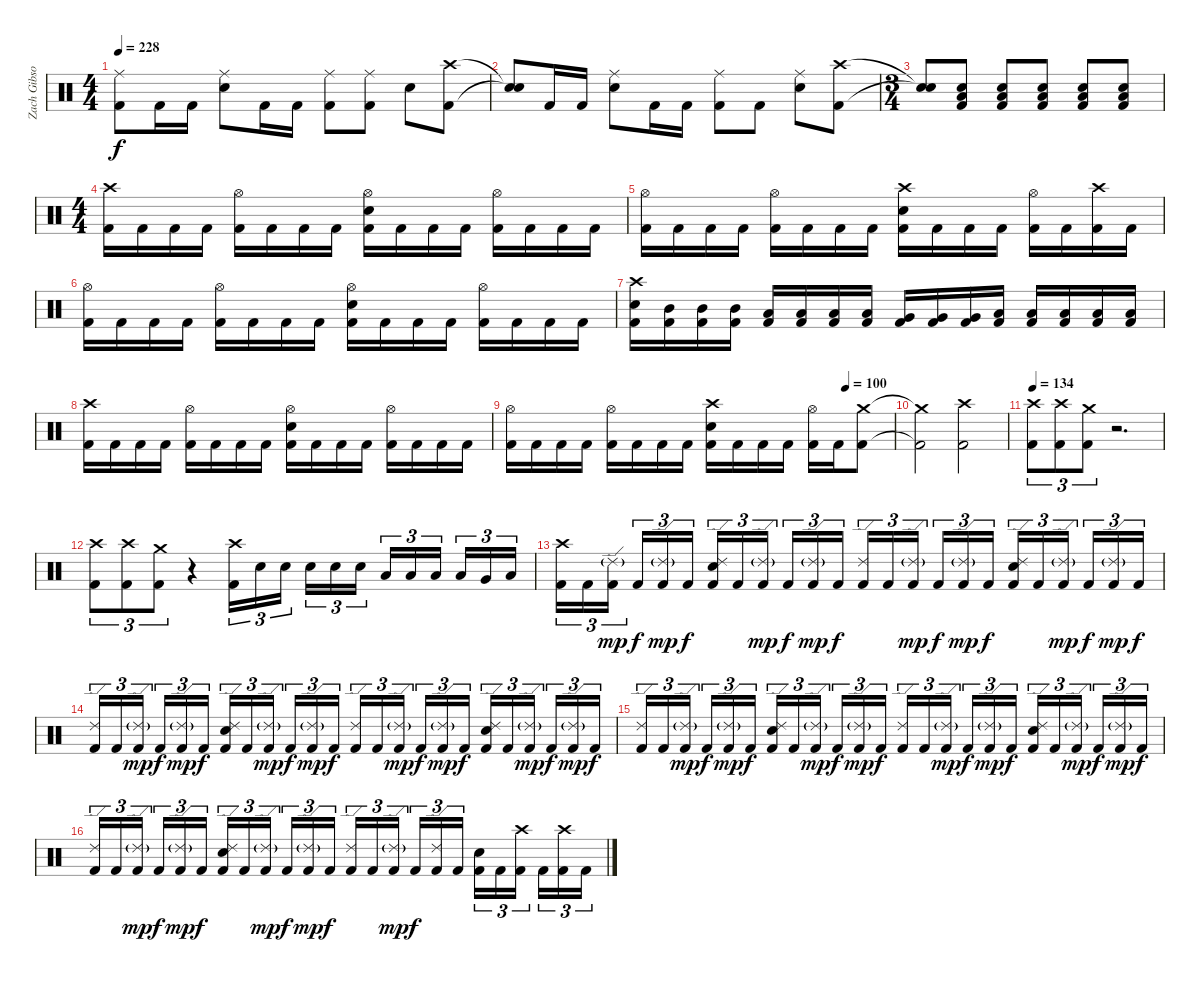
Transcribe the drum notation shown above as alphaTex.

\track ("Zach Gibson (Ex-Drums)" "Zach Gibso") {instrument percussion}
\staff {score}
\articulation defaults
\ts (4 4)
\tempo 228
\clef neutral
\ks c
("Ride (middle)" "Kick (hit) 2").8{dy f} "Kick (hit) 2".16 "Kick (hit) 2".16 ("Ride (middle)" "Snare (hit) 2").8 "Kick (hit) 2".16 "Kick (hit) 2".16 ("Kick (hit) 2" "Ride (middle)").8 ("Ride (middle)" "Kick (hit) 2").8 "Snare (hit) 2".8 ("Crash high (hit)" "Kick (hit) 2").8 |
("Snare (hit)"{t} "Snare (hit)"{t}).8 "Kick (hit) 2".16 "Kick (hit) 2".16 ("Ride (middle)" "Snare (hit) 2").8 "Kick (hit) 2".16 "Kick (hit) 2".16 ("Ride (middle)" "Kick (hit) 2").8 "Kick (hit) 2".8 ("Ride (middle)" "Snare (hit) 2").8 ("Crash high (hit)" "Kick (hit) 2").8 |
\ts (3 4)
("Snare (hit)"{t} "Snare (hit)"{t}).8 ("Low Floor Tom (hit)" "Snare (hit) 2" "Kick (hit) 2").8 ("Low Floor Tom (hit)" "Snare (hit) 2" "Kick (hit) 2").8 ("Low Floor Tom (hit)" "Snare (hit) 2" "Kick (hit) 2").8 ("Low Floor Tom (hit)" "Snare (hit) 2" "Kick (hit) 2").8 ("Low Floor Tom (hit)" "Snare (hit) 2" "Kick (hit) 2").8 |
\ts (4 4)
("Crash high (hit)" "Kick (hit) 2").16 "Kick (hit) 2".16 "Kick (hit) 2".16 "Kick (hit) 2".16 ("Hi-Hat (open)" "Kick (hit) 2").16 "Kick (hit) 2".16 "Kick (hit) 2".16 "Kick (hit) 2".16 ("Hi-Hat (open)" "Snare (hit) 2" "Kick (hit) 2").16 "Kick (hit) 2".16 "Kick (hit) 2".16 "Kick (hit) 2".16 ("Hi-Hat (open)" "Kick (hit) 2").16 "Kick (hit) 2".16 "Kick (hit) 2".16 "Kick (hit) 2".16 |
("Hi-Hat (open)" "Kick (hit) 2").16 "Kick (hit) 2".16 "Kick (hit) 2".16 "Kick (hit) 2".16 ("Hi-Hat (open)" "Kick (hit) 2").16 "Kick (hit) 2".16 "Kick (hit) 2".16 "Kick (hit) 2".16 ("Crash high (hit)" "Snare (hit) 2" "Kick (hit) 2").16 "Kick (hit) 2".16 "Kick (hit) 2".16 "Kick (hit) 2".16 ("Hi-Hat (open)" "Kick (hit) 2").16 "Kick (hit) 2".16 ("Crash high (hit)" "Kick (hit) 2").16 "Kick (hit) 2".16 |
("Hi-Hat (open)" "Kick (hit) 2").16 "Kick (hit) 2".16 "Kick (hit) 2".16 "Kick (hit) 2".16 ("Hi-Hat (open)" "Kick (hit) 2").16 "Kick (hit) 2".16 "Kick (hit) 2".16 "Kick (hit) 2".16 ("Hi-Hat (open)" "Snare (hit) 2" "Kick (hit) 2").16 "Kick (hit) 2".16 "Kick (hit) 2".16 "Kick (hit) 2".16 ("Hi-Hat (open)" "Kick (hit) 2").16 "Kick (hit) 2".16 "Kick (hit) 2".16 "Kick (hit) 2".16 |
("Crash high (hit)" "Snare (hit) 2" "Kick (hit) 2").16 ("Mid Tom (hit)" "Kick (hit) 2").16 ("Mid Tom (hit)" "Kick (hit) 2").16 ("Mid Tom (hit)" "Kick (hit) 2").16 ("Low Tom (hit)" "Kick (hit) 2").16 ("Low Tom (hit)" "Kick (hit) 2").16 ("Low Tom (hit)" "Kick (hit) 2").16 ("Low Tom (hit)" "Kick (hit) 2").16 ("Very Low Tom (hit)" "Kick (hit) 2").16 ("Very Low Tom (hit)" "Kick (hit) 2").16 ("Very Low Tom (hit)" "Kick (hit) 2").16 ("Low Floor Tom (hit)" "Kick (hit) 2").16 ("Low Floor Tom (hit)" "Kick (hit) 2").16 ("Low Floor Tom (hit)" "Kick (hit) 2").16 ("Low Floor Tom (hit)" "Kick (hit) 2").16 ("Low Floor Tom (hit)" "Kick (hit) 2").16 |
("Crash high (hit)" "Kick (hit) 2").16 "Kick (hit) 2".16 "Kick (hit) 2".16 "Kick (hit) 2".16 ("Hi-Hat (open)" "Kick (hit) 2").16 "Kick (hit) 2".16 "Kick (hit) 2".16 "Kick (hit) 2".16 ("Hi-Hat (open)" "Snare (hit) 2" "Kick (hit) 2").16 "Kick (hit) 2".16 "Kick (hit) 2".16 "Kick (hit) 2".16 ("Hi-Hat (open)" "Kick (hit) 2").16 "Kick (hit) 2".16 "Kick (hit) 2".16 "Kick (hit) 2".16 |
\tempo (100 0.875)
("Hi-Hat (open)" "Kick (hit) 2").16 "Kick (hit) 2".16 "Kick (hit) 2".16 "Kick (hit) 2".16 ("Hi-Hat (open)" "Kick (hit) 2").16 "Kick (hit) 2".16 "Kick (hit) 2".16 "Kick (hit) 2".16 ("Crash high (hit)" "Snare (hit) 2" "Kick (hit) 2").16 "Kick (hit) 2".16 "Kick (hit) 2".16 "Kick (hit) 2".16 ("Hi-Hat (open)" "Kick (hit) 2").16 "Kick (hit) 2".16 ("Crash medium (hit)" "Kick (hit) 2").8 |
("Crash medium (hit)"{t} "Kick (hit) 2"{t}).2 ("Crash high (hit)" "Kick (hit) 2").2 |
\tempo 134
("Crash high (hit)" "Kick (hit) 2").8{tu (3 2)} ("Crash high (hit)" "Kick (hit) 2").8{tu (3 2)} ("Crash medium (hit)" "Kick (hit) 2").8{tu (3 2)} r.2{d} |
("Crash high (hit)" "Kick (hit) 2").8{tu (3 2)} ("Crash high (hit)" "Kick (hit) 2").8{tu (3 2)} ("Crash medium (hit)" "Kick (hit) 2").8{tu (3 2)} r.4 ("Crash high (hit)" "Kick (hit) 2").16{tu (3 2)} "Snare (hit) 2".16{tu (3 2)} "Snare (hit) 2".16{tu (3 2)} "Snare (hit) 2".16{tu (3 2)} "Snare (hit) 2".16{tu (3 2)} "Snare (hit) 2".16{tu (3 2)} "Low Tom (hit)".16{tu (3 2)} "Low Tom (hit)".16{tu (3 2)} "Low Tom (hit)".16{tu (3 2)} "Low Tom (hit)".16{tu (3 2)} "Very Low Tom (hit)".16{tu (3 2)} "Low Floor Tom (hit)".16{tu (3 2)} |
("Crash high (hit)" "Kick (hit) 2").16{tu (3 2)} "Kick (hit) 2".16{tu (3 2)} ("Ride (edge) 2"{g} "Kick (hit) 2").16{tu (3 2) dy mp} "Kick (hit) 2".16{tu (3 2) dy f} ("Ride (edge) 2"{g} "Kick (hit) 2").16{tu (3 2) dy mp} "Kick (hit) 2".16{tu (3 2) dy f} ("Ride (edge) 2" "Snare (hit) 2" "Kick (hit) 2").16{tu (3 2)} "Kick (hit) 2".16{tu (3 2)} ("Ride (edge) 2"{g} "Kick (hit) 2").16{tu (3 2) dy mp} "Kick (hit) 2".16{tu (3 2) dy f} ("Ride (edge) 2"{g} "Kick (hit) 2").16{tu (3 2) dy mp} "Kick (hit) 2".16{tu (3 2) dy f} ("Ride (edge) 2" "Kick (hit) 2").16{tu (3 2)} "Kick (hit) 2".16{tu (3 2)} ("Ride (edge) 2"{g} "Kick (hit) 2").16{tu (3 2) dy mp} "Kick (hit) 2".16{tu (3 2) dy f} ("Ride (edge) 2"{g} "Kick (hit) 2").16{tu (3 2) dy mp} "Kick (hit) 2".16{tu (3 2) dy f} ("Snare (hit) 2" "Ride (edge) 2" "Kick (hit) 2").16{tu (3 2)} "Kick (hit) 2".16{tu (3 2)} ("Ride (edge) 2"{g} "Kick (hit) 2").16{tu (3 2) dy mp} "Kick (hit) 2".16{tu (3 2) dy f} ("Ride (edge) 2"{g} "Kick (hit) 2").16{tu (3 2) dy mp} "Kick (hit) 2".16{tu (3 2) dy f} |
("Ride (edge) 2" "Kick (hit) 2").16{tu (3 2)} "Kick (hit) 2".16{tu (3 2)} ("Ride (edge) 2"{g} "Kick (hit) 2").16{tu (3 2) dy mp} "Kick (hit) 2".16{tu (3 2) dy f} ("Ride (edge) 2"{g} "Kick (hit) 2").16{tu (3 2) dy mp} "Kick (hit) 2".16{tu (3 2) dy f} ("Ride (edge) 2" "Snare (hit) 2" "Kick (hit) 2").16{tu (3 2)} "Kick (hit) 2".16{tu (3 2)} ("Ride (edge) 2"{g} "Kick (hit) 2").16{tu (3 2) dy mp} "Kick (hit) 2".16{tu (3 2) dy f} ("Ride (edge) 2"{g} "Kick (hit) 2").16{tu (3 2) dy mp} "Kick (hit) 2".16{tu (3 2) dy f} ("Ride (edge) 2" "Kick (hit) 2").16{tu (3 2)} "Kick (hit) 2".16{tu (3 2)} ("Ride (edge) 2"{g} "Kick (hit) 2").16{tu (3 2) dy mp} "Kick (hit) 2".16{tu (3 2) dy f} ("Ride (edge) 2"{g} "Kick (hit) 2").16{tu (3 2) dy mp} "Kick (hit) 2".16{tu (3 2) dy f} ("Snare (hit) 2" "Ride (edge) 2" "Kick (hit) 2").16{tu (3 2)} "Kick (hit) 2".16{tu (3 2)} ("Ride (edge) 2"{g} "Kick (hit) 2").16{tu (3 2) dy mp} "Kick (hit) 2".16{tu (3 2) dy f} ("Ride (edge) 2"{g} "Kick (hit) 2").16{tu (3 2) dy mp} "Kick (hit) 2".16{tu (3 2) dy f} |
("Ride (edge) 2" "Kick (hit) 2").16{tu (3 2)} "Kick (hit) 2".16{tu (3 2)} ("Ride (edge) 2"{g} "Kick (hit) 2").16{tu (3 2) dy mp} "Kick (hit) 2".16{tu (3 2) dy f} ("Ride (edge) 2"{g} "Kick (hit) 2").16{tu (3 2) dy mp} "Kick (hit) 2".16{tu (3 2) dy f} ("Ride (edge) 2" "Snare (hit) 2" "Kick (hit) 2").16{tu (3 2)} "Kick (hit) 2".16{tu (3 2)} ("Ride (edge) 2"{g} "Kick (hit) 2").16{tu (3 2) dy mp} "Kick (hit) 2".16{tu (3 2) dy f} ("Ride (edge) 2"{g} "Kick (hit) 2").16{tu (3 2) dy mp} "Kick (hit) 2".16{tu (3 2) dy f} ("Ride (edge) 2" "Kick (hit) 2").16{tu (3 2)} "Kick (hit) 2".16{tu (3 2)} ("Ride (edge) 2"{g} "Kick (hit) 2").16{tu (3 2) dy mp} "Kick (hit) 2".16{tu (3 2) dy f} ("Ride (edge) 2"{g} "Kick (hit) 2").16{tu (3 2) dy mp} "Kick (hit) 2".16{tu (3 2) dy f} ("Snare (hit) 2" "Ride (edge) 2" "Kick (hit) 2").16{tu (3 2)} "Kick (hit) 2".16{tu (3 2)} ("Ride (edge) 2"{g} "Kick (hit) 2").16{tu (3 2) dy mp} "Kick (hit) 2".16{tu (3 2) dy f} ("Ride (edge) 2"{g} "Kick (hit) 2").16{tu (3 2) dy mp} "Kick (hit) 2".16{tu (3 2) dy f} |
("Ride (edge) 2" "Kick (hit) 2").16{tu (3 2)} "Kick (hit) 2".16{tu (3 2)} ("Ride (edge) 2"{g} "Kick (hit) 2").16{tu (3 2) dy mp} "Kick (hit) 2".16{tu (3 2) dy f} ("Ride (edge) 2"{g} "Kick (hit) 2").16{tu (3 2) dy mp} "Kick (hit) 2".16{tu (3 2) dy f} ("Ride (edge) 2" "Snare (hit) 2" "Kick (hit) 2").16{tu (3 2)} "Kick (hit) 2".16{tu (3 2)} ("Ride (edge) 2"{g} "Kick (hit) 2").16{tu (3 2) dy mp} "Kick (hit) 2".16{tu (3 2) dy f} ("Ride (edge) 2"{g} "Kick (hit) 2").16{tu (3 2) dy mp} "Kick (hit) 2".16{tu (3 2) dy f} ("Ride (edge) 2" "Kick (hit) 2").16{tu (3 2)} "Kick (hit) 2".16{tu (3 2)} ("Ride (edge) 2"{g} "Kick (hit) 2").16{tu (3 2) dy mp} "Kick (hit) 2".16{tu (3 2) dy f} ("Ride (edge) 2" "Kick (hit) 2").16{tu (3 2)} "Kick (hit) 2".16{tu (3 2)} ("Snare (hit) 2" "Kick (hit) 2").16{tu (3 2)} "Kick (hit) 2".16{tu (3 2)} ("Crash high (hit)" "Kick (hit) 2").16{tu (3 2)} "Kick (hit) 2".16{tu (3 2)} ("Crash high (hit)" "Kick (hit) 2").16{tu (3 2)} "Kick (hit) 2".16{tu (3 2)}
